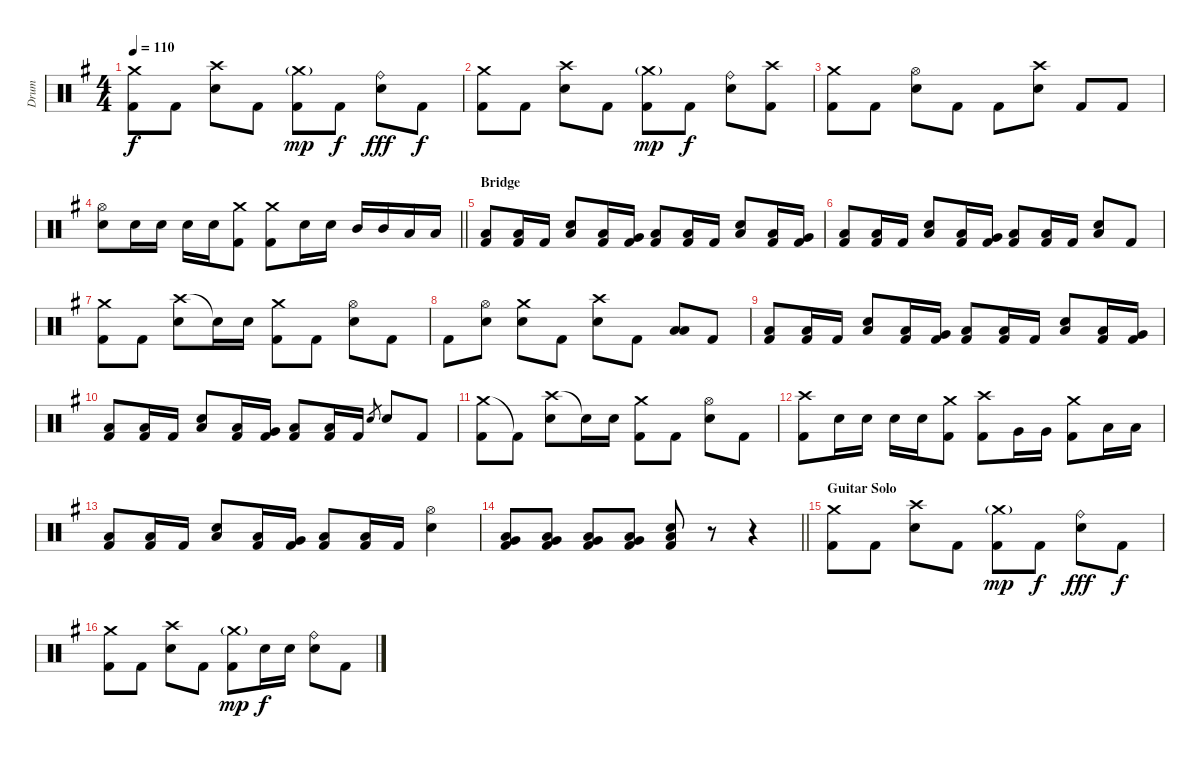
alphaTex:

\track ("Drum" "Drum") {instrument percussion}
\staff {score}
\articulation defaults
\ts (4 4)
\tempo 110
\clef neutral
\ks g
("Crash medium (hit)" "Kick (hit) 2").8{dy f} "Kick (hit) 2".8 ("Crash high (hit)" "Electric Snare (hit)").8 "Kick (hit) 2".8 ("Crash medium (hit)"{g} "Kick (hit) 2").8{dy mp} "Kick (hit) 2".8{dy f} ("Ride (bell)" "Electric Snare (hit)").8{dy fff} "Kick (hit) 2".8{dy f} |
("Crash medium (hit)" "Kick (hit) 2").8 "Kick (hit) 2".8 ("Crash high (hit)" "Electric Snare (hit)").8 "Kick (hit) 2".8 ("Crash medium (hit)"{g} "Kick (hit) 2").8{dy mp} "Kick (hit) 2".8{dy f} ("Ride (bell)" "Electric Snare (hit)").8 ("Crash high (hit)" "Kick (hit) 2").8 |
("Crash medium (hit)" "Kick (hit) 2").8 "Kick (hit) 2".8 ("Hi-Hat (open)" "Electric Snare (hit)").8 "Kick (hit) 2".8 "Kick (hit) 2".8 ("Crash high (hit)" "Electric Snare (hit)").8 "Kick (hit) 2".8 "Kick (hit) 2".8 |
\barLineRight lightlight
("Hi-Hat (open)" "Electric Snare (hit)").8 "Electric Snare (hit)".16 "Electric Snare (hit)".16 "Electric Snare (hit)".16 "Electric Snare (hit)".16 ("Crash medium (hit)" "Kick (hit) 2").8 ("Crash medium (hit)" "Kick (hit) 2").8 "Electric Snare (hit)".16 "Electric Snare (hit)".16 "Mid Tom (hit)".16 "Mid Tom (hit)".16 "Low Tom (hit)".16 "Low Tom (hit)".16 |
\section ("" "Bridge")
("Low Floor Tom (hit)" "Kick (hit) 2").8 ("Low Floor Tom (hit)" "Kick (hit) 2").16 "Kick (hit) 2".16 ("Low Floor Tom (hit)" "Electric Snare (hit)").8 ("Low Floor Tom (hit)" "Kick (hit) 2").16 ("Very Low Tom (hit)" "Kick (hit) 2").16 ("Low Floor Tom (hit)" "Kick (hit) 2").8 ("Low Floor Tom (hit)" "Kick (hit) 2").16 "Kick (hit) 2".16 ("Low Floor Tom (hit)" "Electric Snare (hit)").8 ("Low Floor Tom (hit)" "Kick (hit) 2").16 ("Very Low Tom (hit)" "Kick (hit) 2").16 |
("Low Floor Tom (hit)" "Kick (hit) 2").8 ("Low Floor Tom (hit)" "Kick (hit) 2").16 "Kick (hit) 2".16 ("Low Floor Tom (hit)" "Electric Snare (hit)").8 ("Low Floor Tom (hit)" "Kick (hit) 2").16 ("Very Low Tom (hit)" "Kick (hit) 2").16 ("Low Floor Tom (hit)" "Kick (hit) 2").8 ("Low Floor Tom (hit)" "Kick (hit) 2").16 "Kick (hit) 2".16 ("Low Floor Tom (hit)" "Electric Snare (hit)").8 "Kick (hit) 2".8 |
("Crash medium (hit)" "Kick (hit) 2").8 "Kick (hit) 2".8 ("Crash high (hit)" "Electric Snare (hit)").8 "Snare (hit)"{t}.16 "Electric Snare (hit)".16 ("Crash medium (hit)" "Kick (hit) 2").8 "Kick (hit) 2".8 ("Hi-Hat (open)" "Electric Snare (hit)").8 "Kick (hit) 2".8 |
"Kick (hit) 2".8 ("Hi-Hat (open)" "Electric Snare (hit)").8 ("Crash medium (hit)" "Electric Snare (hit)").8 "Kick (hit) 2".8 ("Crash high (hit)" "Electric Snare (hit)").8 "Kick (hit) 2".8 ("Low Floor Tom (hit)" "Low Tom (hit)").8 "Kick (hit) 2".8 |
("Low Floor Tom (hit)" "Kick (hit) 2").8 ("Low Floor Tom (hit)" "Kick (hit) 2").16 "Kick (hit) 2".16 ("Low Floor Tom (hit)" "Electric Snare (hit)").8 ("Low Floor Tom (hit)" "Kick (hit) 2").16 ("Very Low Tom (hit)" "Kick (hit) 2").16 ("Low Floor Tom (hit)" "Kick (hit) 2").8 ("Low Floor Tom (hit)" "Kick (hit) 2").16 "Kick (hit) 2".16 ("Low Floor Tom (hit)" "Electric Snare (hit)").8 ("Low Floor Tom (hit)" "Kick (hit) 2").16 ("Very Low Tom (hit)" "Kick (hit) 2").16 |
("Low Floor Tom (hit)" "Kick (hit) 2").8 ("Low Floor Tom (hit)" "Kick (hit) 2").16 "Kick (hit) 2".16 ("Low Floor Tom (hit)" "Electric Snare (hit)").8 ("Low Floor Tom (hit)" "Kick (hit) 2").16 ("Very Low Tom (hit)" "Kick (hit) 2").16 ("Low Floor Tom (hit)" "Kick (hit) 2").8 ("Low Floor Tom (hit)" "Kick (hit) 2").16 "Kick (hit) 2".16 "Electric Snare (hit)".8{gr} "Electric Snare (hit)".8 "Kick (hit) 2".8 |
("Crash medium (hit)" "Kick (hit) 2").8 "Kick (hit) 2"{t}.8 ("Crash high (hit)" "Electric Snare (hit)").8 "Snare (hit)"{t}.16 "Electric Snare (hit)".16 ("Crash medium (hit)" "Kick (hit) 2").8 "Kick (hit) 2".8 ("Hi-Hat (open)" "Electric Snare (hit)").8 "Kick (hit) 2".8 |
("Crash high (hit)" "Kick (hit) 2").8 "Electric Snare (hit)".16 "Electric Snare (hit)".16 "Electric Snare (hit)".16 "Electric Snare (hit)".16 ("Crash medium (hit)" "Kick (hit) 2").8 ("Crash high (hit)" "Kick (hit) 2").8 "Very Low Tom (hit)".16 "Very Low Tom (hit)".16 ("Crash medium (hit)" "Kick (hit) 2").8 "Low Floor Tom (hit)".16 "Low Floor Tom (hit)".16 |
("Low Floor Tom (hit)" "Kick (hit) 2").8 ("Low Floor Tom (hit)" "Kick (hit) 2").16 "Kick (hit) 2".16 ("Low Floor Tom (hit)" "Electric Snare (hit)").8 ("Low Floor Tom (hit)" "Kick (hit) 2").16 ("Very Low Tom (hit)" "Kick (hit) 2").16 ("Low Floor Tom (hit)" "Kick (hit) 2").8 ("Low Floor Tom (hit)" "Kick (hit) 2").16 "Kick (hit) 2".16 ("Hi-Hat (open)" "Electric Snare (hit)").4 |
\barLineRight lightlight
("Very Low Tom (hit)" "Low Floor Tom (hit)" "Kick (hit) 2").8 ("Very Low Tom (hit)" "Low Floor Tom (hit)" "Kick (hit) 2").8 ("Very Low Tom (hit)" "Low Floor Tom (hit)" "Kick (hit) 2").8 ("Very Low Tom (hit)" "Low Floor Tom (hit)" "Kick (hit) 2").8 ("Low Floor Tom (hit)" "Electric Snare (hit)" "Kick (hit) 2").8 r.8 r.4 |
\section ("" "Guitar Solo")
("Crash medium (hit)" "Kick (hit) 2").8 "Kick (hit) 2".8 ("Crash high (hit)" "Electric Snare (hit)").8 "Kick (hit) 2".8 ("Crash medium (hit)"{g} "Kick (hit) 2").8{dy mp} "Kick (hit) 2".8{dy f} ("Ride (bell)" "Electric Snare (hit)").8{dy fff} "Kick (hit) 2".8{dy f} |
("Crash medium (hit)" "Kick (hit) 2").8 "Kick (hit) 2".8 ("Crash high (hit)" "Electric Snare (hit)").8 "Kick (hit) 2".8 ("Crash medium (hit)"{g} "Kick (hit) 2").8{dy mp} "Electric Snare (hit)".16{dy f} "Electric Snare (hit)".16 ("Ride (bell)" "Electric Snare (hit)").8 "Kick (hit) 2".8
